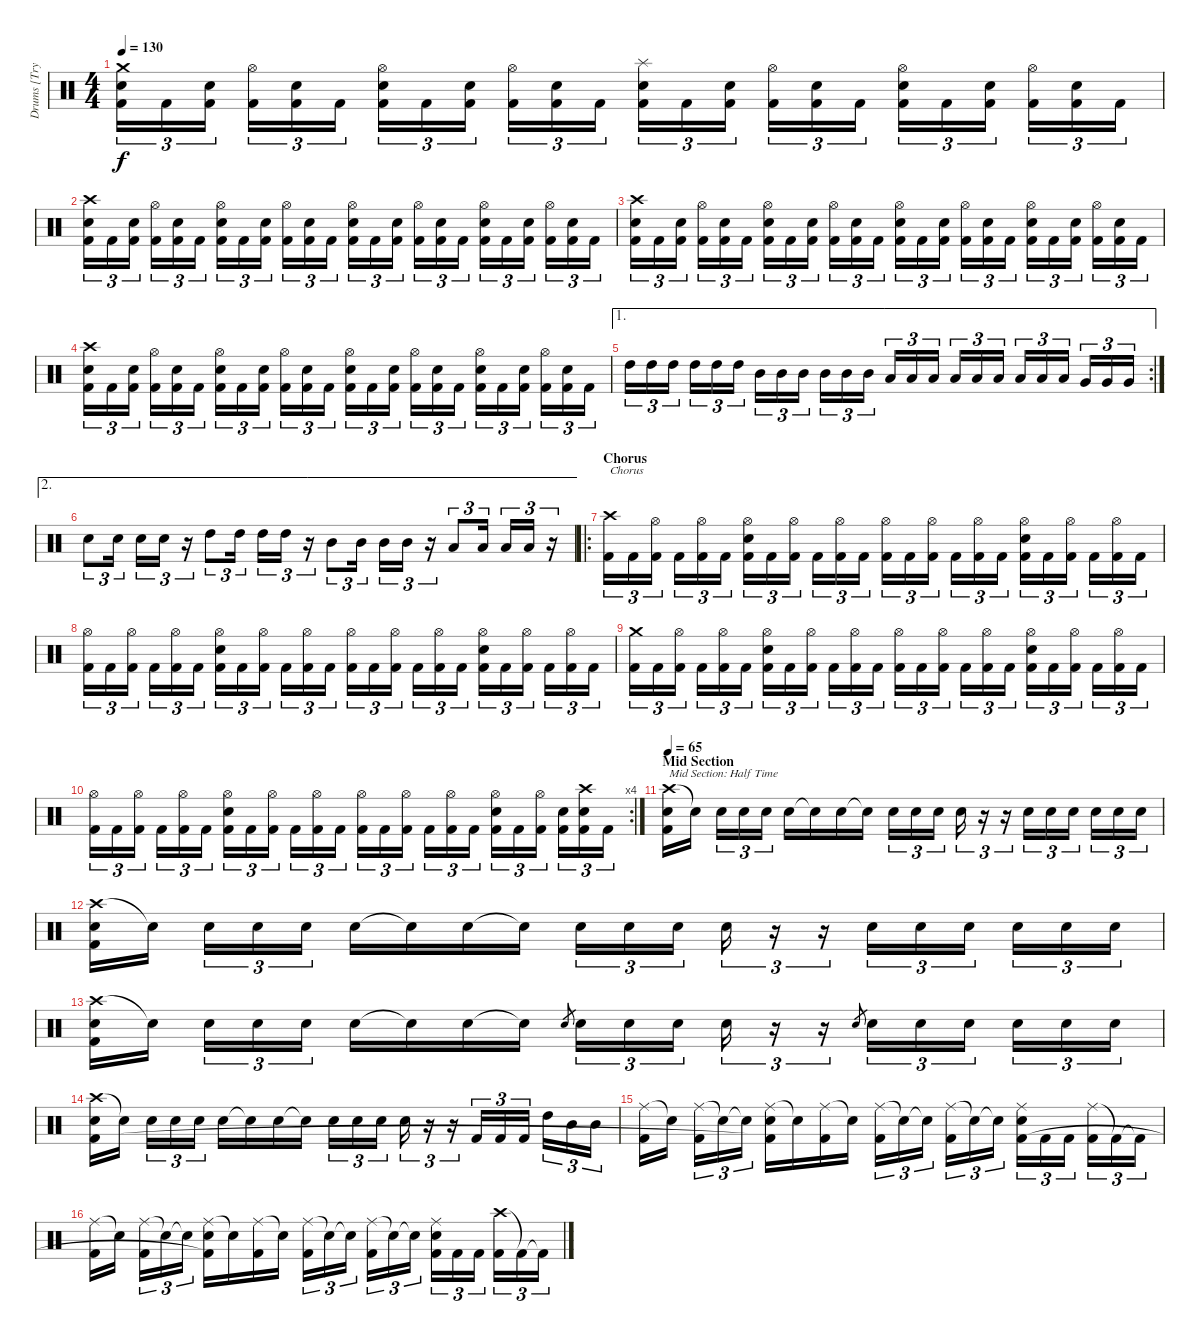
\track ("Drums [Trym]" "Drums [Try") {instrument percussion}
\staff {score}
\articulation defaults
\ts (4 4)
\tempo 130
\clef neutral
\ks c
("Crash medium (hit)" "Electric Snare (hit)" "Kick (hit) 2").16{tu (3 2) dy f} "Kick (hit) 2".16{tu (3 2)} ("Electric Snare (hit)" "Kick (hit) 2").16{tu (3 2)} ("Hi-Hat (open)" "Kick (hit) 2").16{tu (3 2)} ("Electric Snare (hit)" "Kick (hit) 2").16{tu (3 2)} "Kick (hit) 2".16{tu (3 2)} ("Hi-Hat (open)" "Electric Snare (hit)" "Kick (hit) 2").16{tu (3 2)} "Kick (hit) 2".16{tu (3 2)} ("Electric Snare (hit)" "Kick (hit) 2").16{tu (3 2)} ("Hi-Hat (open)" "Kick (hit) 2").16{tu (3 2)} ("Electric Snare (hit)" "Kick (hit) 2").16{tu (3 2)} "Kick (hit) 2".16{tu (3 2)} ("Splash (hit)" "Electric Snare (hit)" "Kick (hit) 2").16{tu (3 2)} "Kick (hit) 2".16{tu (3 2)} ("Electric Snare (hit)" "Kick (hit) 2").16{tu (3 2)} ("Hi-Hat (open)" "Kick (hit) 2").16{tu (3 2)} ("Electric Snare (hit)" "Kick (hit) 2").16{tu (3 2)} "Kick (hit) 2".16{tu (3 2)} ("Hi-Hat (open)" "Electric Snare (hit)" "Kick (hit) 2").16{tu (3 2)} "Kick (hit) 2".16{tu (3 2)} ("Electric Snare (hit)" "Kick (hit) 2").16{tu (3 2)} ("Hi-Hat (open)" "Kick (hit) 2").16{tu (3 2)} ("Electric Snare (hit)" "Kick (hit) 2").16{tu (3 2)} "Kick (hit) 2".16{tu (3 2)} |
("Crash high (hit)" "Electric Snare (hit)" "Kick (hit) 2").16{tu (3 2)} "Kick (hit) 2".16{tu (3 2)} ("Electric Snare (hit)" "Kick (hit) 2").16{tu (3 2)} ("Hi-Hat (open)" "Kick (hit) 2").16{tu (3 2)} ("Electric Snare (hit)" "Kick (hit) 2").16{tu (3 2)} "Kick (hit) 2".16{tu (3 2)} ("Hi-Hat (open)" "Electric Snare (hit)" "Kick (hit) 2").16{tu (3 2)} "Kick (hit) 2".16{tu (3 2)} ("Electric Snare (hit)" "Kick (hit) 2").16{tu (3 2)} ("Hi-Hat (open)" "Kick (hit) 2").16{tu (3 2)} ("Electric Snare (hit)" "Kick (hit) 2").16{tu (3 2)} "Kick (hit) 2".16{tu (3 2)} ("Hi-Hat (open)" "Electric Snare (hit)" "Kick (hit) 2").16{tu (3 2)} "Kick (hit) 2".16{tu (3 2)} ("Electric Snare (hit)" "Kick (hit) 2").16{tu (3 2)} ("Hi-Hat (open)" "Kick (hit) 2").16{tu (3 2)} ("Electric Snare (hit)" "Kick (hit) 2").16{tu (3 2)} "Kick (hit) 2".16{tu (3 2)} ("Hi-Hat (open)" "Electric Snare (hit)" "Kick (hit) 2").16{tu (3 2)} "Kick (hit) 2".16{tu (3 2)} ("Electric Snare (hit)" "Kick (hit) 2").16{tu (3 2)} ("Hi-Hat (open)" "Kick (hit) 2").16{tu (3 2)} ("Electric Snare (hit)" "Kick (hit) 2").16{tu (3 2)} "Kick (hit) 2".16{tu (3 2)} |
("Crash high (hit)" "Electric Snare (hit)" "Kick (hit) 2").16{tu (3 2)} "Kick (hit) 2".16{tu (3 2)} ("Electric Snare (hit)" "Kick (hit) 2").16{tu (3 2)} ("Hi-Hat (open)" "Kick (hit) 2").16{tu (3 2)} ("Electric Snare (hit)" "Kick (hit) 2").16{tu (3 2)} "Kick (hit) 2".16{tu (3 2)} ("Hi-Hat (open)" "Electric Snare (hit)" "Kick (hit) 2").16{tu (3 2)} "Kick (hit) 2".16{tu (3 2)} ("Electric Snare (hit)" "Kick (hit) 2").16{tu (3 2)} ("Hi-Hat (open)" "Kick (hit) 2").16{tu (3 2)} ("Electric Snare (hit)" "Kick (hit) 2").16{tu (3 2)} "Kick (hit) 2".16{tu (3 2)} ("Hi-Hat (open)" "Electric Snare (hit)" "Kick (hit) 2").16{tu (3 2)} "Kick (hit) 2".16{tu (3 2)} ("Electric Snare (hit)" "Kick (hit) 2").16{tu (3 2)} ("Hi-Hat (open)" "Kick (hit) 2").16{tu (3 2)} ("Electric Snare (hit)" "Kick (hit) 2").16{tu (3 2)} "Kick (hit) 2".16{tu (3 2)} ("Hi-Hat (open)" "Electric Snare (hit)" "Kick (hit) 2").16{tu (3 2)} "Kick (hit) 2".16{tu (3 2)} ("Electric Snare (hit)" "Kick (hit) 2").16{tu (3 2)} ("Hi-Hat (open)" "Kick (hit) 2").16{tu (3 2)} ("Electric Snare (hit)" "Kick (hit) 2").16{tu (3 2)} "Kick (hit) 2".16{tu (3 2)} |
("Crash high (hit)" "Electric Snare (hit)" "Kick (hit) 2").16{tu (3 2)} "Kick (hit) 2".16{tu (3 2)} ("Electric Snare (hit)" "Kick (hit) 2").16{tu (3 2)} ("Hi-Hat (open)" "Kick (hit) 2").16{tu (3 2)} ("Electric Snare (hit)" "Kick (hit) 2").16{tu (3 2)} "Kick (hit) 2".16{tu (3 2)} ("Hi-Hat (open)" "Electric Snare (hit)" "Kick (hit) 2").16{tu (3 2)} "Kick (hit) 2".16{tu (3 2)} ("Electric Snare (hit)" "Kick (hit) 2").16{tu (3 2)} ("Hi-Hat (open)" "Kick (hit) 2").16{tu (3 2)} ("Electric Snare (hit)" "Kick (hit) 2").16{tu (3 2)} "Kick (hit) 2".16{tu (3 2)} ("Hi-Hat (open)" "Electric Snare (hit)" "Kick (hit) 2").16{tu (3 2)} "Kick (hit) 2".16{tu (3 2)} ("Electric Snare (hit)" "Kick (hit) 2").16{tu (3 2)} ("Hi-Hat (open)" "Kick (hit) 2").16{tu (3 2)} ("Electric Snare (hit)" "Kick (hit) 2").16{tu (3 2)} "Kick (hit) 2".16{tu (3 2)} ("Hi-Hat (open)" "Electric Snare (hit)" "Kick (hit) 2").16{tu (3 2)} "Kick (hit) 2".16{tu (3 2)} ("Electric Snare (hit)" "Kick (hit) 2").16{tu (3 2)} ("Hi-Hat (open)" "Kick (hit) 2").16{tu (3 2)} ("Electric Snare (hit)" "Kick (hit) 2").16{tu (3 2)} "Kick (hit) 2".16{tu (3 2)} |
\ae 1
\rc 2 "High Tom (hit)".16{tu (3 2)} "High Tom (hit)".16{tu (3 2)} "High Tom (hit)".16{tu (3 2)} "High Tom (hit)".16{tu (3 2)} "High Tom (hit)".16{tu (3 2)} "High Tom (hit)".16{tu (3 2)} "Mid Tom (hit)".16{tu (3 2)} "Mid Tom (hit)".16{tu (3 2)} "Mid Tom (hit)".16{tu (3 2)} "Mid Tom (hit)".16{tu (3 2)} "Mid Tom (hit)".16{tu (3 2)} "Mid Tom (hit)".16{tu (3 2)} "Low Tom (hit)".16{tu (3 2)} "Low Tom (hit)".16{tu (3 2)} "Low Tom (hit)".16{tu (3 2)} "Low Tom (hit)".16{tu (3 2)} "Low Tom (hit)".16{tu (3 2)} "Low Tom (hit)".16{tu (3 2)} "Low Tom (hit)".16{tu (3 2)} "Low Tom (hit)".16{tu (3 2)} "Low Tom (hit)".16{tu (3 2)} "Very Low Tom (hit)".16{tu (3 2)} "Very Low Tom (hit)".16{tu (3 2)} "Very Low Tom (hit)".16{tu (3 2)}
|
\ae 2 "Electric Snare (hit)".8{tu (3 2)} "Electric Snare (hit)".16{tu (3 2)} "Electric Snare (hit)".16{tu (3 2)} "Electric Snare (hit)".16{tu (3 2)}
r.16{tu (3 2)} "High Tom (hit)".8{tu (3 2)} "High Tom (hit)".16{tu (3 2)} "High Tom (hit)".16{tu (3 2)} "High Tom (hit)".16{tu (3 2)} r.16{tu (3 2)} "Mid Tom (hit)".8{tu (3 2)} "Mid Tom (hit)".16{tu (3 2)} "Mid Tom (hit)".16{tu (3 2)} "Mid Tom (hit)".16{tu (3 2)} r.16{tu (3 2)} "Low Tom (hit)".8{tu (3 2)} "Low Tom (hit)".16{tu (3 2)} "Low Tom (hit)".16{tu (3 2)} "Low Tom (hit)".16{tu (3 2)} r.16{tu (3 2)} |
\ro
\section ("" "Chorus")
("Crash high (hit)" "Kick (hit) 2").16{tu (3 2) txt "Chorus"} "Kick (hit) 2".16{tu (3 2)} ("Hi-Hat (open)" "Kick (hit) 2").16{tu (3 2)} "Kick (hit) 2".16{tu (3 2)} ("Hi-Hat (open)" "Kick (hit) 2").16{tu (3 2)} "Kick (hit) 2".16{tu (3 2)} ("Hi-Hat (open)" "Electric Snare (hit)" "Kick (hit) 2").16{tu (3 2)} "Kick (hit) 2".16{tu (3 2)} ("Hi-Hat (open)" "Kick (hit) 2").16{tu (3 2)} "Kick (hit) 2".16{tu (3 2)} ("Hi-Hat (open)" "Kick (hit) 2").16{tu (3 2)} "Kick (hit) 2".16{tu (3 2)} ("Hi-Hat (open)" "Kick (hit) 2").16{tu (3 2)} "Kick (hit) 2".16{tu (3 2)} ("Hi-Hat (open)" "Kick (hit) 2").16{tu (3 2)} "Kick (hit) 2".16{tu (3 2)} ("Hi-Hat (open)" "Kick (hit) 2").16{tu (3 2)} "Kick (hit) 2".16{tu (3 2)} ("Hi-Hat (open)" "Electric Snare (hit)" "Kick (hit) 2").16{tu (3 2)} "Kick (hit) 2".16{tu (3 2)} ("Hi-Hat (open)" "Kick (hit) 2").16{tu (3 2)} "Kick (hit) 2".16{tu (3 2)} ("Hi-Hat (open)" "Kick (hit) 2").16{tu (3 2)} "Kick (hit) 2".16{tu (3 2)} |
("Hi-Hat (open)" "Kick (hit) 2").16{tu (3 2)} "Kick (hit) 2".16{tu (3 2)} ("Hi-Hat (open)" "Kick (hit) 2").16{tu (3 2)} "Kick (hit) 2".16{tu (3 2)} ("Hi-Hat (open)" "Kick (hit) 2").16{tu (3 2)} "Kick (hit) 2".16{tu (3 2)} ("Hi-Hat (open)" "Electric Snare (hit)" "Kick (hit) 2").16{tu (3 2)} "Kick (hit) 2".16{tu (3 2)} ("Hi-Hat (open)" "Kick (hit) 2").16{tu (3 2)} "Kick (hit) 2".16{tu (3 2)} ("Hi-Hat (open)" "Kick (hit) 2").16{tu (3 2)} "Kick (hit) 2".16{tu (3 2)} ("Hi-Hat (open)" "Kick (hit) 2").16{tu (3 2)} "Kick (hit) 2".16{tu (3 2)} ("Hi-Hat (open)" "Kick (hit) 2").16{tu (3 2)} "Kick (hit) 2".16{tu (3 2)} ("Hi-Hat (open)" "Kick (hit) 2").16{tu (3 2)} "Kick (hit) 2".16{tu (3 2)} ("Hi-Hat (open)" "Electric Snare (hit)" "Kick (hit) 2").16{tu (3 2)} "Kick (hit) 2".16{tu (3 2)} ("Hi-Hat (open)" "Kick (hit) 2").16{tu (3 2)} "Kick (hit) 2".16{tu (3 2)} ("Hi-Hat (open)" "Kick (hit) 2").16{tu (3 2)} "Kick (hit) 2".16{tu (3 2)} |
("Crash medium (hit)" "Kick (hit) 2").16{tu (3 2)} "Kick (hit) 2".16{tu (3 2)} ("Hi-Hat (open)" "Kick (hit) 2").16{tu (3 2)} "Kick (hit) 2".16{tu (3 2)} ("Hi-Hat (open)" "Kick (hit) 2").16{tu (3 2)} "Kick (hit) 2".16{tu (3 2)} ("Hi-Hat (open)" "Electric Snare (hit)" "Kick (hit) 2").16{tu (3 2)} "Kick (hit) 2".16{tu (3 2)} ("Hi-Hat (open)" "Kick (hit) 2").16{tu (3 2)} "Kick (hit) 2".16{tu (3 2)} ("Hi-Hat (open)" "Kick (hit) 2").16{tu (3 2)} "Kick (hit) 2".16{tu (3 2)} ("Hi-Hat (open)" "Kick (hit) 2").16{tu (3 2)} "Kick (hit) 2".16{tu (3 2)} ("Hi-Hat (open)" "Kick (hit) 2").16{tu (3 2)} "Kick (hit) 2".16{tu (3 2)} ("Hi-Hat (open)" "Kick (hit) 2").16{tu (3 2)} "Kick (hit) 2".16{tu (3 2)} ("Hi-Hat (open)" "Electric Snare (hit)" "Kick (hit) 2").16{tu (3 2)} "Kick (hit) 2".16{tu (3 2)} ("Hi-Hat (open)" "Kick (hit) 2").16{tu (3 2)} "Kick (hit) 2".16{tu (3 2)} ("Hi-Hat (open)" "Kick (hit) 2").16{tu (3 2)} "Kick (hit) 2".16{tu (3 2)} |
\rc 4
("Hi-Hat (open)" "Kick (hit) 2").16{tu (3 2)} "Kick (hit) 2".16{tu (3 2)} ("Hi-Hat (open)" "Kick (hit) 2").16{tu (3 2)} "Kick (hit) 2".16{tu (3 2)} ("Hi-Hat (open)" "Kick (hit) 2").16{tu (3 2)} "Kick (hit) 2".16{tu (3 2)} ("Hi-Hat (open)" "Electric Snare (hit)" "Kick (hit) 2").16{tu (3 2)} "Kick (hit) 2".16{tu (3 2)} ("Hi-Hat (open)" "Kick (hit) 2").16{tu (3 2)} "Kick (hit) 2".16{tu (3 2)} ("Hi-Hat (open)" "Kick (hit) 2").16{tu (3 2)} "Kick (hit) 2".16{tu (3 2)} ("Hi-Hat (open)" "Kick (hit) 2").16{tu (3 2)} "Kick (hit) 2".16{tu (3 2)} ("Hi-Hat (open)" "Kick (hit) 2").16{tu (3 2)} "Kick (hit) 2".16{tu (3 2)} ("Hi-Hat (open)" "Kick (hit) 2").16{tu (3 2)} "Kick (hit) 2".16{tu (3 2)} ("Hi-Hat (open)" "Electric Snare (hit)" "Kick (hit) 2").16{tu (3 2)} "Kick (hit) 2".16{tu (3 2)} ("Hi-Hat (open)" "Kick (hit) 2").16{tu (3 2)} ("Electric Snare (hit)" "Kick (hit) 2").16{tu (3 2)} ("Crash high (hit)" "Electric Snare (hit)" "Kick (hit) 2").16{tu (3 2)} "Kick (hit) 2".16{tu (3 2)} |
\section ("" "Mid Section")
\tempo 65
("Crash high (hit)" "Electric Snare (hit)" "Kick (hit) 2").16{txt "Mid Section: Half Time"} "Snare (hit)"{t}.16 "Electric Snare (hit)".16{tu (3 2)} "Electric Snare (hit)".16{tu (3 2)} "Electric Snare (hit)".16{tu (3 2)} "Electric Snare (hit)".16 "Snare (hit)"{t}.16 "Electric Snare (hit)".16 "Snare (hit)"{t}.16 "Electric Snare (hit)".16{tu (3 2)} "Electric Snare (hit)".16{tu (3 2)} "Electric Snare (hit)".16{tu (3 2)} "Electric Snare (hit)".16{tu (3 2)} r.16{tu (3 2)} r.16{tu (3 2)} "Electric Snare (hit)".16{tu (3 2)} "Electric Snare (hit)".16{tu (3 2)} "Electric Snare (hit)".16{tu (3 2)} "Electric Snare (hit)".16{tu (3 2)} "Electric Snare (hit)".16{tu (3 2)} "Electric Snare (hit)".16{tu (3 2)} |
("Crash high (hit)" "Electric Snare (hit)" "Kick (hit) 2").16 "Snare (hit)"{t}.16 "Electric Snare (hit)".16{tu (3 2)} "Electric Snare (hit)".16{tu (3 2)} "Electric Snare (hit)".16{tu (3 2)} "Electric Snare (hit)".16 "Snare (hit)"{t}.16 "Electric Snare (hit)".16 "Snare (hit)"{t}.16 "Electric Snare (hit)".16{tu (3 2)} "Electric Snare (hit)".16{tu (3 2)} "Electric Snare (hit)".16{tu (3 2)} "Electric Snare (hit)".16{tu (3 2)} r.16{tu (3 2)} r.16{tu (3 2)} "Electric Snare (hit)".16{tu (3 2)} "Electric Snare (hit)".16{tu (3 2)} "Electric Snare (hit)".16{tu (3 2)} "Electric Snare (hit)".16{tu (3 2)} "Electric Snare (hit)".16{tu (3 2)} "Electric Snare (hit)".16{tu (3 2)} |
("Crash high (hit)" "Electric Snare (hit)" "Kick (hit) 2").16 "Snare (hit)"{t}.16 "Electric Snare (hit)".16{tu (3 2)} "Electric Snare (hit)".16{tu (3 2)} "Electric Snare (hit)".16{tu (3 2)} "Electric Snare (hit)".16 "Snare (hit)"{t}.16 "Electric Snare (hit)".16 "Snare (hit)"{t}.16 "Electric Snare (hit)"{h}.8{gr} "Electric Snare (hit)".16{tu (3 2)} "Electric Snare (hit)".16{tu (3 2)} "Electric Snare (hit)".16{tu (3 2)} "Electric Snare (hit)".16{tu (3 2)} r.16{tu (3 2)} r.16{tu (3 2)} "Electric Snare (hit)"{h}.8{gr} "Electric Snare (hit)".16{tu (3 2)} "Electric Snare (hit)".16{tu (3 2)} "Electric Snare (hit)".16{tu (3 2)} "Electric Snare (hit)".16{tu (3 2)} "Electric Snare (hit)".16{tu (3 2)} "Electric Snare (hit)".16{tu (3 2)} |
("Crash high (hit)" "Electric Snare (hit)" "Kick (hit) 2").16 "Snare (hit)"{t}.16 "Electric Snare (hit)".16{tu (3 2)} "Electric Snare (hit)".16{tu (3 2)} "Electric Snare (hit)".16{tu (3 2)} "Electric Snare (hit)".16 "Snare (hit)"{t}.16 "Electric Snare (hit)".16 "Snare (hit)"{t}.16 "Electric Snare (hit)".16{tu (3 2)} "Electric Snare (hit)".16{tu (3 2)} "Electric Snare (hit)".16{tu (3 2)} "Electric Snare (hit)".16{tu (3 2)} r.16{tu (3 2)} r.16{tu (3 2)} "Kick (hit) 2".16{tu (3 2)} "Kick (hit) 2".16{tu (3 2)} "Kick (hit) 2".16{tu (3 2)} "High Tom (hit)".16{tu (3 2)} "Mid Tom (hit)".16{tu (3 2)} "Mid Tom (hit)".16{tu (3 2)} |
("Ride (middle)" "Kick (hit) 2").16 "Snare (hit)"{t}.16 ("Ride (middle)" "Kick (hit) 2").16{tu (3 2)} "Snare (hit)"{t}.16{tu (3 2)} "Snare (hit)"{t}.16{tu (3 2)} ("Ride (middle)" "Electric Snare (hit)" "Kick (hit) 2"{t}).16 "Snare (hit)"{t}.16 ("Ride (middle)" "Kick (hit) 2").16 "Snare (hit)"{t}.16 ("Ride (middle)" "Kick (hit) 2").16{tu (3 2)} "Snare (hit)"{t}.16{tu (3 2)} "Snare (hit)"{t}.16{tu (3 2)} ("Ride (middle)" "Kick (hit) 2").16{tu (3 2)} "Snare (hit)"{t}.16{tu (3 2)} "Snare (hit)"{t}.16{tu (3 2)} ("Ride (middle)" "Electric Snare (hit)" "Kick (hit) 2").16{tu (3 2)} "Kick (hit) 2".16{tu (3 2)} "Kick (hit) 2".16{tu (3 2)} ("Ride (middle)" "Kick (hit) 2").16{tu (3 2)} "Kick (hit) 2"{t}.16{tu (3 2)} "Kick (hit) 2"{t}.16{tu (3 2)} |
("Ride (middle)" "Kick (hit) 2").16 "Snare (hit)"{t}.16 ("Ride (middle)" "Kick (hit) 2").16{tu (3 2)} "Snare (hit)"{t}.16{tu (3 2)} "Snare (hit)"{t}.16{tu (3 2)} ("Ride (middle)" "Electric Snare (hit)" "Kick (hit) 2"{t}).16 "Snare (hit)"{t}.16 ("Ride (middle)" "Kick (hit) 2").16 "Snare (hit)"{t}.16 ("Ride (middle)" "Kick (hit) 2").16{tu (3 2)} "Snare (hit)"{t}.16{tu (3 2)} "Snare (hit)"{t}.16{tu (3 2)} ("Ride (middle)" "Kick (hit) 2").16{tu (3 2)} "Snare (hit)"{t}.16{tu (3 2)} "Snare (hit)"{t}.16{tu (3 2)} ("Ride (middle)" "Electric Snare (hit)" "Kick (hit) 2").16{tu (3 2)} "Kick (hit) 2".16{tu (3 2)} "Kick (hit) 2".16{tu (3 2)} ("Crash high (hit)" "Kick (hit) 2").16{tu (3 2)} "Kick (hit) 2"{t}.16{tu (3 2)} "Kick (hit) 2"{t}.16{tu (3 2)}
